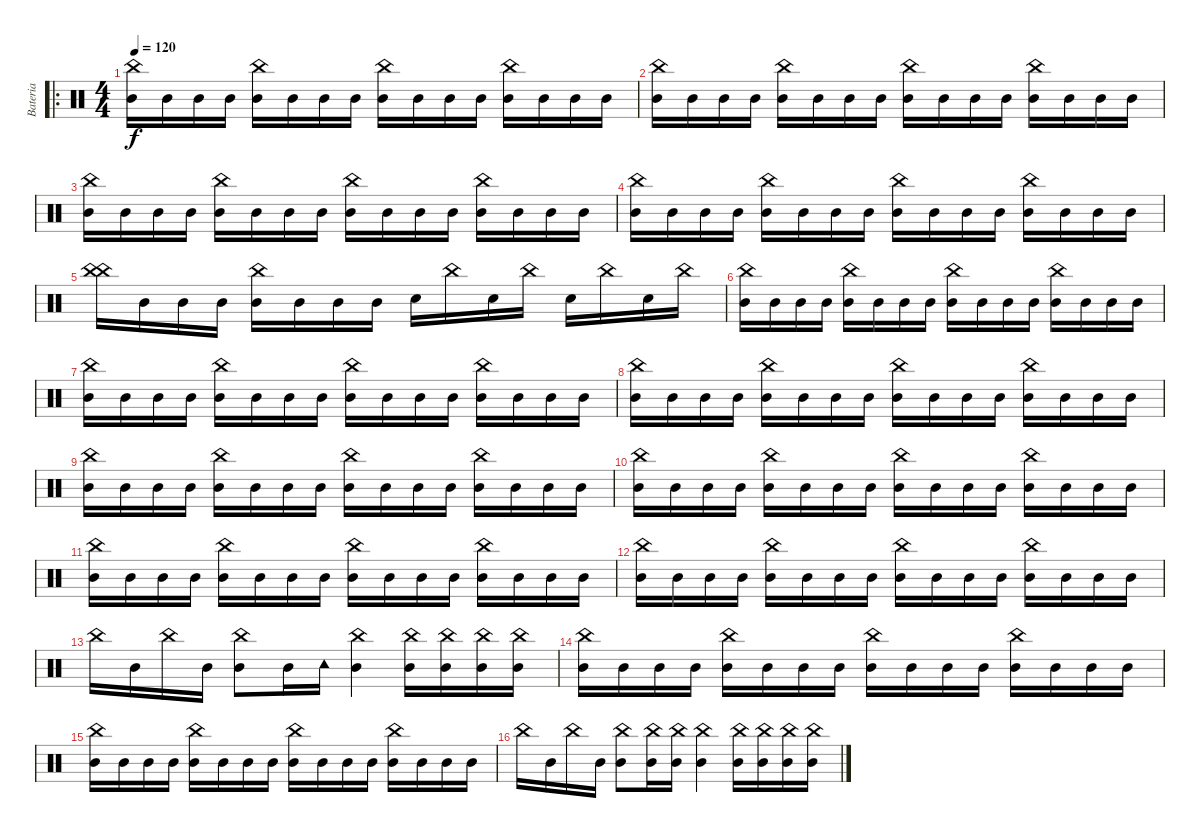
\track ("Bateria" "Bateria") {instrument percussion}
\staff {score}
\articulation defaults
\ro
\ts (4 4)
\tempo 120
\clef neutral
\ks c
("Mid Tom (hit)" "China (hit)").16{dy f} "Mid Tom (hit)".16 "Mid Tom (hit)".16 "Mid Tom (hit)".16 ("Mid Tom (hit)" "China (hit)").16 "Mid Tom (hit)".16 "Mid Tom (hit)".16 "Mid Tom (hit)".16 ("Mid Tom (hit)" "China (hit)").16 "Mid Tom (hit)".16 "Mid Tom (hit)".16 "Mid Tom (hit)".16 ("Mid Tom (hit)" "China (hit)").16 "Mid Tom (hit)".16 "Mid Tom (hit)".16 "Mid Tom (hit)".16 |
("Mid Tom (hit)" "China (hit)").16 "Mid Tom (hit)".16 "Mid Tom (hit)".16 "Mid Tom (hit)".16 ("Mid Tom (hit)" "China (hit)").16 "Mid Tom (hit)".16 "Mid Tom (hit)".16 "Mid Tom (hit)".16 ("Mid Tom (hit)" "China (hit)").16 "Mid Tom (hit)".16 "Mid Tom (hit)".16 "Mid Tom (hit)".16 ("Mid Tom (hit)" "China (hit)").16 "Mid Tom (hit)".16 "Mid Tom (hit)".16 "Mid Tom (hit)".16 |
("Mid Tom (hit)" "China (hit)").16 "Mid Tom (hit)".16 "Mid Tom (hit)".16 "Mid Tom (hit)".16 ("Mid Tom (hit)" "China (hit)").16 "Mid Tom (hit)".16 "Mid Tom (hit)".16 "Mid Tom (hit)".16 ("Mid Tom (hit)" "China (hit)").16 "Mid Tom (hit)".16 "Mid Tom (hit)".16 "Mid Tom (hit)".16 ("Mid Tom (hit)" "China (hit)").16 "Mid Tom (hit)".16 "Mid Tom (hit)".16 "Mid Tom (hit)".16 |
("Mid Tom (hit)" "China (hit)").16 "Mid Tom (hit)".16 "Mid Tom (hit)".16 "Mid Tom (hit)".16 ("Mid Tom (hit)" "China (hit)").16 "Mid Tom (hit)".16 "Mid Tom (hit)".16 "Mid Tom (hit)".16 ("Mid Tom (hit)" "China (hit)").16 "Mid Tom (hit)".16 "Mid Tom (hit)".16 "Mid Tom (hit)".16 ("Mid Tom (hit)" "China (hit)").16 "Mid Tom (hit)".16 "Mid Tom (hit)".16 "Mid Tom (hit)".16 |
("China (hit)" "China (hit)").16 "Mid Tom (hit)".16 "Mid Tom (hit)".16 "Mid Tom (hit)".16 ("Mid Tom (hit)" "China (hit)").16 "Mid Tom (hit)".16 "Mid Tom (hit)".16 "Mid Tom (hit)".16 "Electric Snare (hit)".16 "China (hit)".16 "Electric Snare (hit)".16 "China (hit)".16 "Electric Snare (hit)".16 "China (hit)".16 "Electric Snare (hit)".16 "China (hit)".16 |
("Mid Tom (hit)" "China (hit)").16 "Mid Tom (hit)".16 "Mid Tom (hit)".16 "Mid Tom (hit)".16 ("Mid Tom (hit)" "China (hit)").16 "Mid Tom (hit)".16 "Mid Tom (hit)".16 "Mid Tom (hit)".16 ("Mid Tom (hit)" "China (hit)").16 "Mid Tom (hit)".16 "Mid Tom (hit)".16 "Mid Tom (hit)".16 ("Mid Tom (hit)" "China (hit)").16 "Mid Tom (hit)".16 "Mid Tom (hit)".16 "Mid Tom (hit)".16 |
("Mid Tom (hit)" "China (hit)").16 "Mid Tom (hit)".16 "Mid Tom (hit)".16 "Mid Tom (hit)".16 ("Mid Tom (hit)" "China (hit)").16 "Mid Tom (hit)".16 "Mid Tom (hit)".16 "Mid Tom (hit)".16 ("Mid Tom (hit)" "China (hit)").16 "Mid Tom (hit)".16 "Mid Tom (hit)".16 "Mid Tom (hit)".16 ("Mid Tom (hit)" "China (hit)").16 "Mid Tom (hit)".16 "Mid Tom (hit)".16 "Mid Tom (hit)".16 |
("Mid Tom (hit)" "China (hit)").16 "Mid Tom (hit)".16 "Mid Tom (hit)".16 "Mid Tom (hit)".16 ("Mid Tom (hit)" "China (hit)").16 "Mid Tom (hit)".16 "Mid Tom (hit)".16 "Mid Tom (hit)".16 ("Mid Tom (hit)" "China (hit)").16 "Mid Tom (hit)".16 "Mid Tom (hit)".16 "Mid Tom (hit)".16 ("Mid Tom (hit)" "China (hit)").16 "Mid Tom (hit)".16 "Mid Tom (hit)".16 "Mid Tom (hit)".16 |
("Mid Tom (hit)" "China (hit)").16 "Mid Tom (hit)".16 "Mid Tom (hit)".16 "Mid Tom (hit)".16 ("Mid Tom (hit)" "China (hit)").16 "Mid Tom (hit)".16 "Mid Tom (hit)".16 "Mid Tom (hit)".16 ("Mid Tom (hit)" "China (hit)").16 "Mid Tom (hit)".16 "Mid Tom (hit)".16 "Mid Tom (hit)".16 ("Mid Tom (hit)" "China (hit)").16 "Mid Tom (hit)".16 "Mid Tom (hit)".16 "Mid Tom (hit)".16 |
("Mid Tom (hit)" "China (hit)").16 "Mid Tom (hit)".16 "Mid Tom (hit)".16 "Mid Tom (hit)".16 ("Mid Tom (hit)" "China (hit)").16 "Mid Tom (hit)".16 "Mid Tom (hit)".16 "Mid Tom (hit)".16 ("Mid Tom (hit)" "China (hit)").16 "Mid Tom (hit)".16 "Mid Tom (hit)".16 "Mid Tom (hit)".16 ("Mid Tom (hit)" "China (hit)").16 "Mid Tom (hit)".16 "Mid Tom (hit)".16 "Mid Tom (hit)".16 |
("Mid Tom (hit)" "China (hit)").16 "Mid Tom (hit)".16 "Mid Tom (hit)".16 "Mid Tom (hit)".16 ("Mid Tom (hit)" "China (hit)").16 "Mid Tom (hit)".16 "Mid Tom (hit)".16 "Mid Tom (hit)".16 ("Mid Tom (hit)" "China (hit)").16 "Mid Tom (hit)".16 "Mid Tom (hit)".16 "Mid Tom (hit)".16 ("Mid Tom (hit)" "China (hit)").16 "Mid Tom (hit)".16 "Mid Tom (hit)".16 "Mid Tom (hit)".16 |
("Mid Tom (hit)" "China (hit)").16 "Mid Tom (hit)".16 "Mid Tom (hit)".16 "Mid Tom (hit)".16 ("Mid Tom (hit)" "China (hit)").16 "Mid Tom (hit)".16 "Mid Tom (hit)".16 "Mid Tom (hit)".16 ("Mid Tom (hit)" "China (hit)").16 "Mid Tom (hit)".16 "Mid Tom (hit)".16 "Mid Tom (hit)".16 ("Mid Tom (hit)" "China (hit)").16 "Mid Tom (hit)".16 "Mid Tom (hit)".16 "Mid Tom (hit)".16 |
"China (hit)".16 "Mid Tom (hit)".16 "China (hit)".16 "Mid Tom (hit)".16 ("Mid Tom (hit)" "China (hit)").8 "Mid Tom (hit)".16 "Tambourine (hit)".16 ("Mid Tom (hit)" "China (hit)").4 ("Mid Tom (hit)" "China (hit)").16 ("Mid Tom (hit)" "China (hit)").16 ("Mid Tom (hit)" "China (hit)").16 ("Mid Tom (hit)" "China (hit)").16 |
("Mid Tom (hit)" "China (hit)").16 "Mid Tom (hit)".16 "Mid Tom (hit)".16 "Mid Tom (hit)".16 ("Mid Tom (hit)" "China (hit)").16 "Mid Tom (hit)".16 "Mid Tom (hit)".16 "Mid Tom (hit)".16 ("Mid Tom (hit)" "China (hit)").16 "Mid Tom (hit)".16 "Mid Tom (hit)".16 "Mid Tom (hit)".16 ("Mid Tom (hit)" "China (hit)").16 "Mid Tom (hit)".16 "Mid Tom (hit)".16 "Mid Tom (hit)".16 |
("Mid Tom (hit)" "China (hit)").16 "Mid Tom (hit)".16 "Mid Tom (hit)".16 "Mid Tom (hit)".16 ("Mid Tom (hit)" "China (hit)").16 "Mid Tom (hit)".16 "Mid Tom (hit)".16 "Mid Tom (hit)".16 ("Mid Tom (hit)" "China (hit)").16 "Mid Tom (hit)".16 "Mid Tom (hit)".16 "Mid Tom (hit)".16 ("Mid Tom (hit)" "China (hit)").16 "Mid Tom (hit)".16 "Mid Tom (hit)".16 "Mid Tom (hit)".16 |
"China (hit)".16 "Mid Tom (hit)".16 "China (hit)".16 "Mid Tom (hit)".16 ("Mid Tom (hit)" "China (hit)").8 ("Mid Tom (hit)" "China (hit)").16 ("Mid Tom (hit)" "China (hit)").16 ("Mid Tom (hit)" "China (hit)").4 ("Mid Tom (hit)" "China (hit)").16 ("Mid Tom (hit)" "China (hit)").16 ("Mid Tom (hit)" "China (hit)").16 ("Mid Tom (hit)" "China (hit)").16
